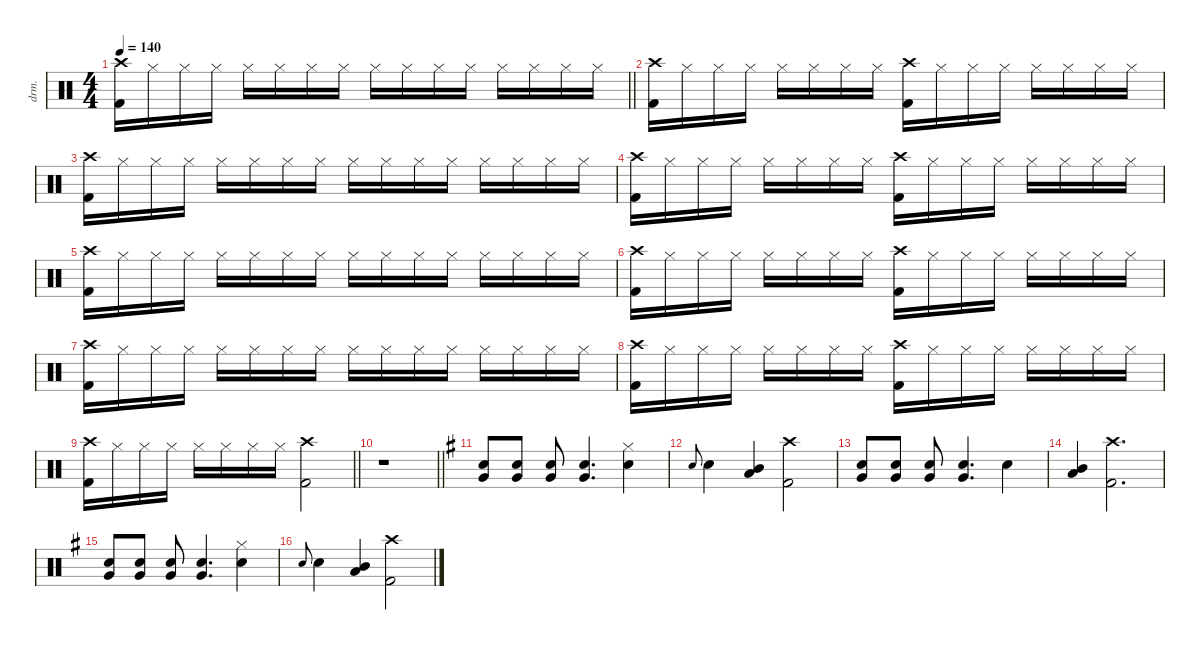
\defaultSystemsLayout 4
\hideDynamics
\bracketExtendMode nobrackets
\otherSystemsTrackNameOrientation horizontal
\track ("Drums" "drm.") {defaultSystemsLayout 4 instrument percussion}
\staff {score}
\articulation defaults
\ts (4 4)
\tempo 140
\clef neutral
\barLineRight lightlight
\ks aminor
("Crash high (hit)" "Kick (hit) 2").16{dy f beam Down} "Hi-Hat (closed)".16{beam Down} "Hi-Hat (closed)".16{beam Down} "Hi-Hat (closed)".16{beam Down} "Hi-Hat (closed)".16{beam Down} "Hi-Hat (closed)".16{beam Down} "Hi-Hat (closed)".16{beam Down} "Hi-Hat (closed)".16{beam Down} "Hi-Hat (closed)".16{beam Down} "Hi-Hat (closed)".16{beam Down} "Hi-Hat (closed)".16{beam Down} "Hi-Hat (closed)".16{beam Down} "Hi-Hat (closed)".16{beam Down} "Hi-Hat (closed)".16{beam Down} "Hi-Hat (closed)".16{beam Down} "Hi-Hat (closed)".16{beam Down} |
("Crash high (hit)" "Kick (hit) 2").16{beam Down} "Hi-Hat (closed)".16{beam Down} "Hi-Hat (closed)".16{beam Down} "Hi-Hat (closed)".16{beam Down} "Hi-Hat (closed)".16{beam Down} "Hi-Hat (closed)".16{beam Down} "Hi-Hat (closed)".16{beam Down} "Hi-Hat (closed)".16{beam Down} ("Crash high (hit)" "Kick (hit) 2").16{beam Down} "Hi-Hat (closed)".16{beam Down} "Hi-Hat (closed)".16{beam Down} "Hi-Hat (closed)".16{beam Down} "Hi-Hat (closed)".16{beam Down} "Hi-Hat (closed)".16{beam Down} "Hi-Hat (closed)".16{beam Down} "Hi-Hat (closed)".16{beam Down} |
("Crash high (hit)" "Kick (hit) 2").16{beam Down} "Hi-Hat (closed)".16{beam Down} "Hi-Hat (closed)".16{beam Down} "Hi-Hat (closed)".16{beam Down} "Hi-Hat (closed)".16{beam Down} "Hi-Hat (closed)".16{beam Down} "Hi-Hat (closed)".16{beam Down} "Hi-Hat (closed)".16{beam Down} "Hi-Hat (closed)".16{beam Down} "Hi-Hat (closed)".16{beam Down} "Hi-Hat (closed)".16{beam Down} "Hi-Hat (closed)".16{beam Down} "Hi-Hat (closed)".16{beam Down} "Hi-Hat (closed)".16{beam Down} "Hi-Hat (closed)".16{beam Down} "Hi-Hat (closed)".16{beam Down} |
("Crash high (hit)" "Kick (hit) 2").16{beam Down} "Hi-Hat (closed)".16{beam Down} "Hi-Hat (closed)".16{beam Down} "Hi-Hat (closed)".16{beam Down} "Hi-Hat (closed)".16{beam Down} "Hi-Hat (closed)".16{beam Down} "Hi-Hat (closed)".16{beam Down} "Hi-Hat (closed)".16{beam Down} ("Crash high (hit)" "Kick (hit) 2").16{beam Down} "Hi-Hat (closed)".16{beam Down} "Hi-Hat (closed)".16{beam Down} "Hi-Hat (closed)".16{beam Down} "Hi-Hat (closed)".16{beam Down} "Hi-Hat (closed)".16{beam Down} "Hi-Hat (closed)".16{beam Down} "Hi-Hat (closed)".16{beam Down} |
("Crash high (hit)" "Kick (hit) 2").16{beam Down} "Hi-Hat (closed)".16{beam Down} "Hi-Hat (closed)".16{beam Down} "Hi-Hat (closed)".16{beam Down} "Hi-Hat (closed)".16{beam Down} "Hi-Hat (closed)".16{beam Down} "Hi-Hat (closed)".16{beam Down} "Hi-Hat (closed)".16{beam Down} "Hi-Hat (closed)".16{beam Down} "Hi-Hat (closed)".16{beam Down} "Hi-Hat (closed)".16{beam Down} "Hi-Hat (closed)".16{beam Down} "Hi-Hat (closed)".16{beam Down} "Hi-Hat (closed)".16{beam Down} "Hi-Hat (closed)".16{beam Down} "Hi-Hat (closed)".16{beam Down} |
("Crash high (hit)" "Kick (hit) 2").16{beam Down} "Hi-Hat (closed)".16{beam Down} "Hi-Hat (closed)".16{beam Down} "Hi-Hat (closed)".16{beam Down} "Hi-Hat (closed)".16{beam Down} "Hi-Hat (closed)".16{beam Down} "Hi-Hat (closed)".16{beam Down} "Hi-Hat (closed)".16{beam Down} ("Crash high (hit)" "Kick (hit) 2").16{beam Down} "Hi-Hat (closed)".16{beam Down} "Hi-Hat (closed)".16{beam Down} "Hi-Hat (closed)".16{beam Down} "Hi-Hat (closed)".16{beam Down} "Hi-Hat (closed)".16{beam Down} "Hi-Hat (closed)".16{beam Down} "Hi-Hat (closed)".16{beam Down} |
("Crash high (hit)" "Kick (hit) 2").16{beam Down} "Hi-Hat (closed)".16{beam Down} "Hi-Hat (closed)".16{beam Down} "Hi-Hat (closed)".16{beam Down} "Hi-Hat (closed)".16{beam Down} "Hi-Hat (closed)".16{beam Down} "Hi-Hat (closed)".16{beam Down} "Hi-Hat (closed)".16{beam Down} "Hi-Hat (closed)".16{beam Down} "Hi-Hat (closed)".16{beam Down} "Hi-Hat (closed)".16{beam Down} "Hi-Hat (closed)".16{beam Down} "Hi-Hat (closed)".16{beam Down} "Hi-Hat (closed)".16{beam Down} "Hi-Hat (closed)".16{beam Down} "Hi-Hat (closed)".16{beam Down} |
("Crash high (hit)" "Kick (hit) 2").16{beam Down} "Hi-Hat (closed)".16{beam Down} "Hi-Hat (closed)".16{beam Down} "Hi-Hat (closed)".16{beam Down} "Hi-Hat (closed)".16{beam Down} "Hi-Hat (closed)".16{beam Down} "Hi-Hat (closed)".16{beam Down} "Hi-Hat (closed)".16{beam Down} ("Crash high (hit)" "Kick (hit) 2").16{beam Down} "Hi-Hat (closed)".16{beam Down} "Hi-Hat (closed)".16{beam Down} "Hi-Hat (closed)".16{beam Down} "Hi-Hat (closed)".16{beam Down} "Hi-Hat (closed)".16{beam Down} "Hi-Hat (closed)".16{beam Down} "Hi-Hat (closed)".16{beam Down} |
\barLineRight lightlight
("Crash high (hit)" "Kick (hit) 2").16{beam Down} "Hi-Hat (closed)".16{beam Down} "Hi-Hat (closed)".16{beam Down} "Hi-Hat (closed)".16{beam Down} "Hi-Hat (closed)".16{beam Down} "Hi-Hat (closed)".16{beam Down} "Hi-Hat (closed)".16{beam Down} "Hi-Hat (closed)".16{beam Down} ("Crash high (hit)" "Kick (hit) 2").2{beam Down} |
\barLineRight lightlight
r.1{beam Down} |
\ks eminor
("Very Low Tom (hit)"{acc forcenatural} "Snare (hit) 2"{acc forcenatural}).8{beam Up} ("Very Low Tom (hit)"{acc forcenatural} "Snare (hit) 2"{acc forcenatural}).8{beam Up} ("Very Low Tom (hit)"{acc forcenatural} "Snare (hit) 2"{acc forcenatural}).8{beam Up} ("Very Low Tom (hit)"{acc forcenatural} "Snare (hit) 2"{acc forcenatural}).4{d beam Up} ("Hi-Hat (closed)"{acc forcenatural} "Snare (hit) 2"{acc forcenatural}).4{beam Down} |
"Snare (hit) 2"{acc forcenatural}.8{gr onbeat dy fff beam Up} "Snare (hit) 2"{acc forcenatural}.4{dy ff beam Down} ("Mid Tom (hit)"{acc forcenatural} "Low Tom (hit)"{acc forcenatural}).4{dy f beam Up} ("Crash high (hit)"{acc forcenatural} "Kick (hit) 2"{acc forcenatural}).2{beam Down} |
("Very Low Tom (hit)"{acc forcenatural} "Snare (hit) 2"{acc forcenatural}).8{beam Up} ("Very Low Tom (hit)"{acc forcenatural} "Snare (hit) 2"{acc forcenatural}).8{beam Up} ("Very Low Tom (hit)"{acc forcenatural} "Snare (hit) 2"{acc forcenatural}).8{beam Up} ("Very Low Tom (hit)"{acc forcenatural} "Snare (hit) 2"{acc forcenatural}).4{d beam Up} "Snare (hit) 2"{acc forcenatural}.4{beam Down} |
("Mid Tom (hit)"{acc forcenatural} "Low Tom (hit)"{acc forcenatural}).4{beam Up} ("Crash high (hit)"{acc forcenatural} "Kick (hit) 2"{acc forcenatural}).2{d beam Down} |
("Very Low Tom (hit)"{acc forcenatural} "Snare (hit) 2"{acc forcenatural}).8{beam Up} ("Very Low Tom (hit)"{acc forcenatural} "Snare (hit) 2"{acc forcenatural}).8{beam Up} ("Very Low Tom (hit)"{acc forcenatural} "Snare (hit) 2"{acc forcenatural}).8{beam Up} ("Very Low Tom (hit)"{acc forcenatural} "Snare (hit) 2"{acc forcenatural}).4{d beam Up} ("Hi-Hat (closed)"{acc forcenatural} "Snare (hit) 2"{acc forcenatural}).4{beam Down} |
"Snare (hit) 2"{acc forcenatural}.8{gr onbeat dy fff beam Up} "Snare (hit) 2"{acc forcenatural}.4{dy ff beam Down} ("Mid Tom (hit)"{acc forcenatural} "Low Tom (hit)"{acc forcenatural}).4{dy f beam Up} ("Crash high (hit)"{acc forcenatural} "Kick (hit) 2"{acc forcenatural}).2{beam Down}
